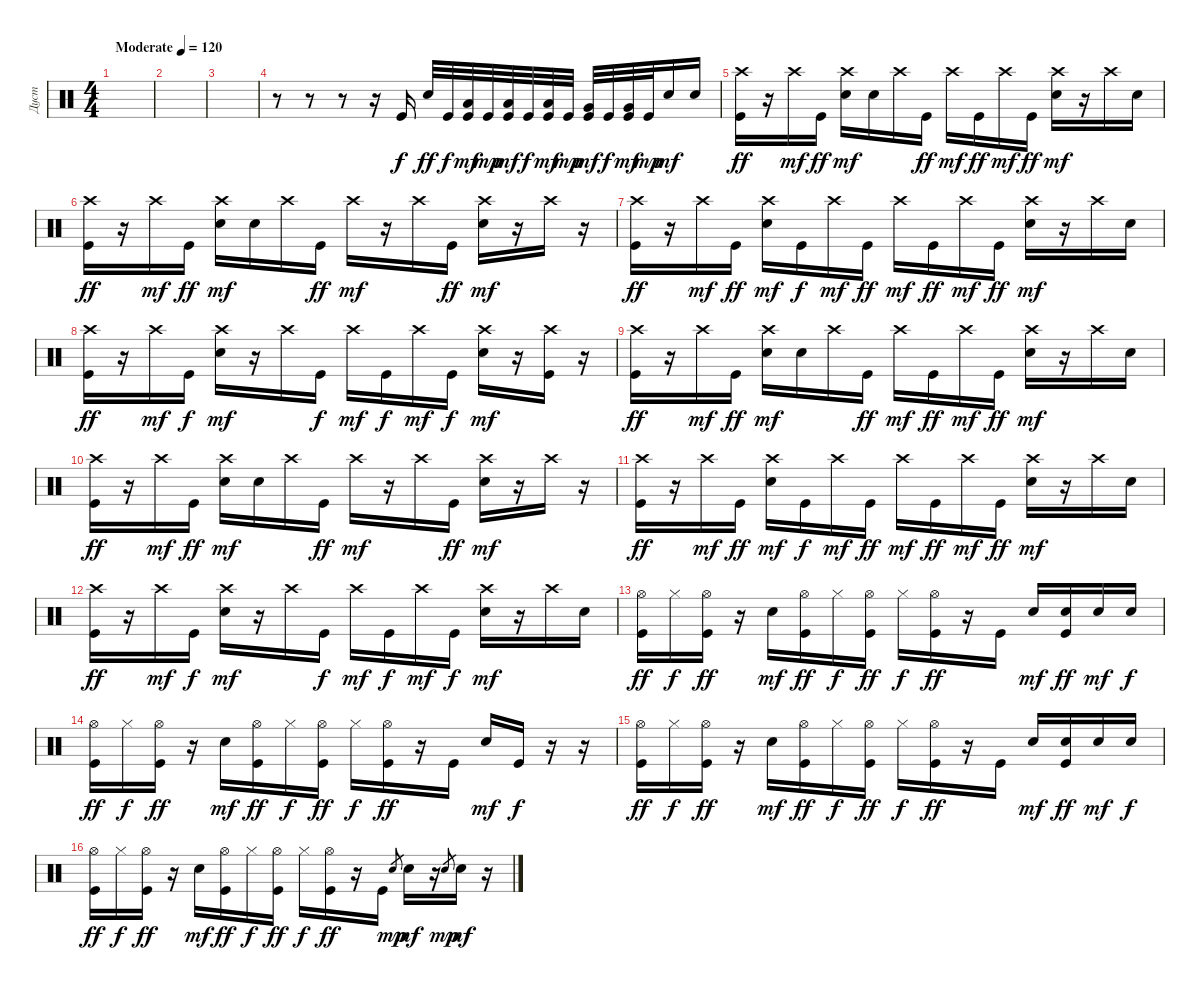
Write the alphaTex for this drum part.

\track ("Дуст" "Дуст") {instrument percussion}
\staff {score}
\articulation defaults
\ts (4 4)
\tempo (120 "Moderate")
\clef neutral
\ks c
|
|
|
r.8 r.8 r.8 r.16 "Kick (hit)".16 "Metronome (bell)".32{dy ff} "Kick (hit)".32{dy f} ("Low Tom (hit)" "Kick (hit)").32{dy mf} "Kick (hit)".32{dy mp} ("Low Tom (hit)" "Kick (hit)").32{dy mf} "Kick (hit)".32{dy f} ("Low Tom (hit)" "Kick (hit)").32{dy mf} "Kick (hit)".32{dy mp} ("Very Low Tom (hit)" "Kick (hit)").32{dy mf} "Kick (hit)".32{dy f} ("Very Low Tom (hit)" "Kick (hit)").32{dy mf} "Kick (hit)".32{dy mp} "Metronome (bell)".16{dy mf} "Metronome (bell)".16 |
("Crash high (hit)" "Kick (hit)").16{dy ff} r.16 "Crash high (hit)".16{dy mf} "Kick (hit)".16{dy ff} ("Crash high (hit)" "Metronome (bell)").16{dy mf} "Metronome (bell)".16 "Crash high (hit)".16 "Kick (hit)".16{dy ff} "Crash high (hit)".16{dy mf} "Kick (hit)".16{dy ff} "Crash high (hit)".16{dy mf} "Kick (hit)".16{dy ff} ("Crash high (hit)" "Metronome (bell)").16{dy mf} r.16 "Crash high (hit)".16 "Metronome (bell)".16 |
("Crash high (hit)" "Kick (hit)").16{dy ff} r.16 "Crash high (hit)".16{dy mf} "Kick (hit)".16{dy ff} ("Crash high (hit)" "Metronome (bell)").16{dy mf} "Metronome (bell)".16 "Crash high (hit)".16 "Kick (hit)".16{dy ff} "Crash high (hit)".16{dy mf} r.16 "Crash high (hit)".16 "Kick (hit)".16{dy ff} ("Crash high (hit)" "Metronome (bell)").16{dy mf} r.16 "Crash high (hit)".16 r.16 |
("Crash high (hit)" "Kick (hit)").16{dy ff} r.16 "Crash high (hit)".16{dy mf} "Kick (hit)".16{dy ff} ("Crash high (hit)" "Metronome (bell)").16{dy mf} "Kick (hit)".16{dy f} "Crash high (hit)".16{dy mf} "Kick (hit)".16{dy ff} "Crash high (hit)".16{dy mf} "Kick (hit)".16{dy ff} "Crash high (hit)".16{dy mf} "Kick (hit)".16{dy ff} ("Crash high (hit)" "Metronome (bell)").16{dy mf} r.16 "Crash high (hit)".16 "Metronome (bell)".16 |
("Crash high (hit)" "Kick (hit)").16{dy ff} r.16 "Crash high (hit)".16{dy mf} "Kick (hit)".16{dy f} ("Crash high (hit)" "Metronome (bell)").16{dy mf} r.16 "Crash high (hit)".16 "Kick (hit)".16{dy f} "Crash high (hit)".16{dy mf} "Kick (hit)".16{dy f} "Crash high (hit)".16{dy mf} "Kick (hit)".16{dy f} ("Crash high (hit)" "Metronome (bell)").16{dy mf} r.16 ("Crash high (hit)" "Kick (hit)").16 r.16 |
("Crash high (hit)" "Kick (hit)").16{dy ff} r.16 "Crash high (hit)".16{dy mf} "Kick (hit)".16{dy ff} ("Crash high (hit)" "Metronome (bell)").16{dy mf} "Metronome (bell)".16 "Crash high (hit)".16 "Kick (hit)".16{dy ff} "Crash high (hit)".16{dy mf} "Kick (hit)".16{dy ff} "Crash high (hit)".16{dy mf} "Kick (hit)".16{dy ff} ("Crash high (hit)" "Metronome (bell)").16{dy mf} r.16 "Crash high (hit)".16 "Metronome (bell)".16 |
("Crash high (hit)" "Kick (hit)").16{dy ff} r.16 "Crash high (hit)".16{dy mf} "Kick (hit)".16{dy ff} ("Crash high (hit)" "Metronome (bell)").16{dy mf} "Metronome (bell)".16 "Crash high (hit)".16 "Kick (hit)".16{dy ff} "Crash high (hit)".16{dy mf} r.16 "Crash high (hit)".16 "Kick (hit)".16{dy ff} ("Crash high (hit)" "Metronome (bell)").16{dy mf} r.16 "Crash high (hit)".16 r.16 |
("Crash high (hit)" "Kick (hit)").16{dy ff} r.16 "Crash high (hit)".16{dy mf} "Kick (hit)".16{dy ff} ("Crash high (hit)" "Metronome (bell)").16{dy mf} "Kick (hit)".16{dy f} "Crash high (hit)".16{dy mf} "Kick (hit)".16{dy ff} "Crash high (hit)".16{dy mf} "Kick (hit)".16{dy ff} "Crash high (hit)".16{dy mf} "Kick (hit)".16{dy ff} ("Crash high (hit)" "Metronome (bell)").16{dy mf} r.16 "Crash high (hit)".16 "Metronome (bell)".16 |
("Crash high (hit)" "Kick (hit)").16{dy ff} r.16 "Crash high (hit)".16{dy mf} "Kick (hit)".16{dy f} ("Crash high (hit)" "Metronome (bell)").16{dy mf} r.16 "Crash high (hit)".16 "Kick (hit)".16{dy f} "Crash high (hit)".16{dy mf} "Kick (hit)".16{dy f} "Crash high (hit)".16{dy mf} "Kick (hit)".16{dy f} ("Crash high (hit)" "Metronome (bell)").16{dy mf} r.16 "Crash high (hit)".16 "Metronome (bell)".16 |
("Hi-Hat (open)" "Kick (hit)").16{dy ff} "Hi-Hat (closed)".16{dy f} ("Hi-Hat (open)" "Kick (hit)").16{dy ff} r.16 "Metronome (bell)".16{dy mf} ("Hi-Hat (open)" "Kick (hit)").16{dy ff} "Hi-Hat (closed)".16{dy f} ("Hi-Hat (open)" "Kick (hit)").16{dy ff} "Hi-Hat (closed)".16{dy f} ("Hi-Hat (open)" "Kick (hit)").16{dy ff} r.16 "Kick (hit)".16 "Metronome (bell)".16{dy mf} ("Metronome (bell)" "Kick (hit)").16{dy ff} "Metronome (bell)".16{dy mf} "Metronome (bell)".16{dy f} |
("Hi-Hat (open)" "Kick (hit)").16{dy ff} "Hi-Hat (closed)".16{dy f} ("Hi-Hat (open)" "Kick (hit)").16{dy ff} r.16 "Metronome (bell)".16{dy mf} ("Hi-Hat (open)" "Kick (hit)").16{dy ff} "Hi-Hat (closed)".16{dy f} ("Hi-Hat (open)" "Kick (hit)").16{dy ff} "Hi-Hat (closed)".16{dy f} ("Hi-Hat (open)" "Kick (hit)").16{dy ff} r.16 "Kick (hit)".16 "Metronome (bell)".16{dy mf} "Kick (hit)".16{dy f} r.16 r.16 |
("Hi-Hat (open)" "Kick (hit)").16{dy ff} "Hi-Hat (closed)".16{dy f} ("Hi-Hat (open)" "Kick (hit)").16{dy ff} r.16 "Metronome (bell)".16{dy mf} ("Hi-Hat (open)" "Kick (hit)").16{dy ff} "Hi-Hat (closed)".16{dy f} ("Hi-Hat (open)" "Kick (hit)").16{dy ff} "Hi-Hat (closed)".16{dy f} ("Hi-Hat (open)" "Kick (hit)").16{dy ff} r.16 "Kick (hit)".16 "Metronome (bell)".16{dy mf} ("Metronome (bell)" "Kick (hit)").16{dy ff} "Metronome (bell)".16{dy mf} "Metronome (bell)".16{dy f} |
("Hi-Hat (open)" "Kick (hit)").16{dy ff} "Hi-Hat (closed)".16{dy f} ("Hi-Hat (open)" "Kick (hit)").16{dy ff} r.16 "Metronome (bell)".16{dy mf} ("Hi-Hat (open)" "Kick (hit)").16{dy ff} "Hi-Hat (closed)".16{dy f} ("Hi-Hat (open)" "Kick (hit)").16{dy ff} "Hi-Hat (closed)".16{dy f} ("Hi-Hat (open)" "Kick (hit)").16{dy ff} r.16 "Kick (hit)".16 "Metronome (bell)".8{gr dy mp} "Metronome (bell)".16{dy mf} r.16 "Metronome (bell)".8{gr dy mp} "Metronome (bell)".16{dy mf} r.16
